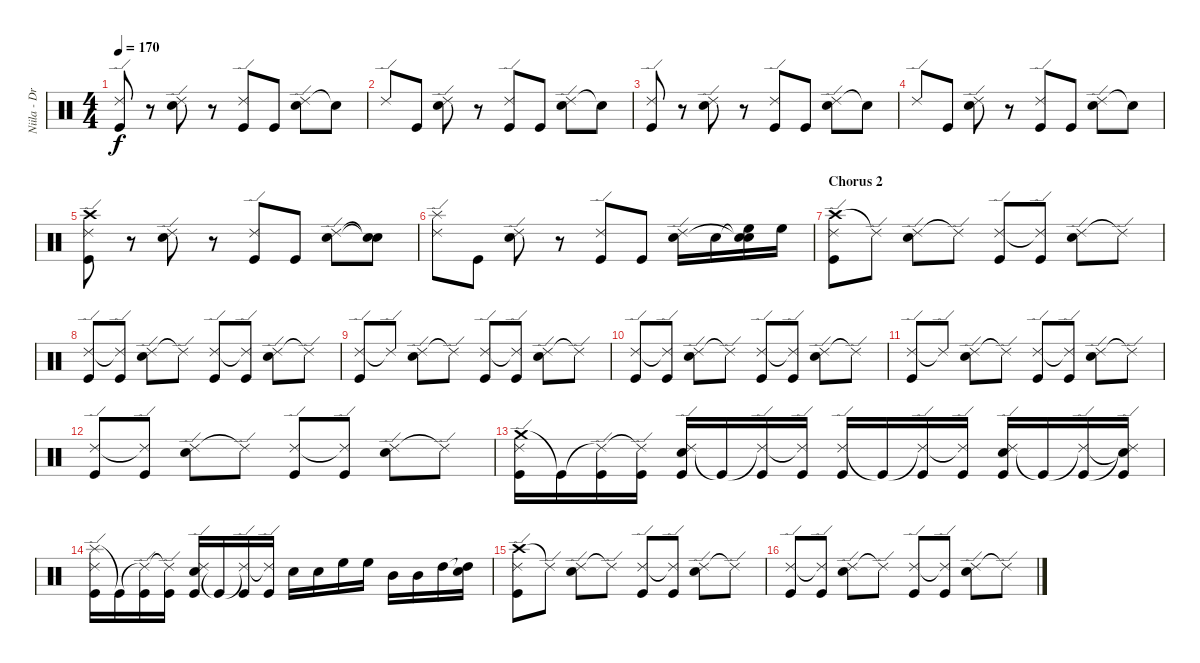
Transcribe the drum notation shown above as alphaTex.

\track ("Niila - Drums" "Niila - Dr") {instrument percussion}
\staff {score}
\articulation defaults
\ts (4 4)
\tempo 170
\clef neutral
\ks c
("Ride (edge) 2" "Kick (hit)").8{dy f} r.8 ("Ride (edge) 2" "Snare (hit) 2").8 r.8 ("Ride (edge) 2" "Kick (hit)").8 "Kick (hit)".8 ("Ride (edge) 2" "Snare (hit) 2").8 "Snare (hit)"{t}.8 |
"Ride (edge) 2".8 "Kick (hit)".8 ("Ride (edge) 2" "Snare (hit) 2").8 r.8 ("Ride (edge) 2" "Kick (hit)").8 "Kick (hit)".8 ("Ride (edge) 2" "Snare (hit) 2").8 "Snare (hit)"{t}.8 |
("Ride (edge) 2" "Kick (hit)").8 r.8 ("Ride (edge) 2" "Snare (hit) 2").8 r.8 ("Ride (edge) 2" "Kick (hit)").8 "Kick (hit)".8 ("Ride (edge) 2" "Snare (hit) 2").8 "Snare (hit)"{t}.8 |
"Ride (edge) 2".8 "Kick (hit)".8 ("Ride (edge) 2" "Snare (hit) 2").8 r.8 ("Ride (edge) 2" "Kick (hit)").8 "Kick (hit)".8 ("Ride (edge) 2" "Snare (hit) 2").8 "Snare (hit)"{t}.8 |
("Crash high (hit)" "Ride (edge) 2" "Kick (hit)").8 r.8 ("Ride (edge) 2" "Snare (hit) 2").8 r.8 ("Ride (edge) 2" "Kick (hit)").8 "Kick (hit)".8 ("Ride (edge) 2" "Snare (hit) 2").8 ("Snare (hit)"{t} "Snare (hit)"{t}).8 |
("Splash (hit)" "Ride (edge) 2").8 "Kick (hit)".8 ("Ride (edge) 2" "Snare (hit) 2").8 r.8 ("Ride (edge) 2" "Kick (hit)").8 "Kick (hit)".8 ("Ride (edge) 2" "Snare (hit) 2").16 "Snare (hit) 2".16 ("Snare (hit)"{t} "Snare (hit)"{t} "High Floor Tom (hit)").16 "High Floor Tom (hit)".16 |
\section ("" "Chorus 2")
("Crash high (hit)" "Ride (edge) 2" "Kick (hit)").8 "Ride (edge) 2"{t}.8 ("Ride (edge) 2" "Snare (hit) 2").8 "Ride (edge) 2"{t}.8 ("Ride (edge) 2" "Kick (hit)").8 ("Ride (edge) 2"{t} "Kick (hit)").8 ("Ride (edge) 2" "Snare (hit) 2").8 "Ride (edge) 2"{t}.8 |
("Ride (edge) 2" "Kick (hit)").8 ("Ride (edge) 2"{t} "Kick (hit)").8 ("Ride (edge) 2" "Snare (hit) 2").8 "Ride (edge) 2"{t}.8 ("Ride (edge) 2" "Kick (hit)").8 ("Ride (edge) 2"{t} "Kick (hit)").8 ("Ride (edge) 2" "Snare (hit) 2").8 "Ride (edge) 2"{t}.8 |
("Ride (edge) 2" "Kick (hit)").8 "Ride (edge) 2"{t}.8 ("Ride (edge) 2" "Snare (hit) 2").8 "Ride (edge) 2"{t}.8 ("Ride (edge) 2" "Kick (hit)").8 ("Ride (edge) 2"{t} "Kick (hit)").8 ("Ride (edge) 2" "Snare (hit) 2").8 "Ride (edge) 2"{t}.8 |
("Ride (edge) 2" "Kick (hit)").8 ("Ride (edge) 2"{t} "Kick (hit)").8 ("Ride (edge) 2" "Snare (hit) 2").8 "Ride (edge) 2"{t}.8 ("Ride (edge) 2" "Kick (hit)").8 ("Ride (edge) 2"{t} "Kick (hit)").8 ("Ride (edge) 2" "Snare (hit) 2").8 "Ride (edge) 2"{t}.8 |
("Ride (edge) 2" "Kick (hit)").8 "Ride (edge) 2"{t}.8 ("Ride (edge) 2" "Snare (hit) 2").8 "Ride (edge) 2"{t}.8 ("Ride (edge) 2" "Kick (hit)").8 ("Ride (edge) 2"{t} "Kick (hit)").8 ("Ride (edge) 2" "Snare (hit) 2").8 "Ride (edge) 2"{t}.8 |
("Ride (edge) 2" "Kick (hit)").8 ("Ride (edge) 2"{t} "Kick (hit)").8 ("Ride (edge) 2" "Snare (hit) 2").8 "Ride (edge) 2"{t}.8 ("Ride (edge) 2" "Kick (hit)").8 ("Ride (edge) 2"{t} "Kick (hit)").8 ("Ride (edge) 2" "Snare (hit) 2").8 "Ride (edge) 2"{t}.8 |
("Crash medium (hit)" "Ride (edge) 2" "Kick (hit)").16 "Kick (hit)"{t}.16 ("Ride (edge) 2"{t} "Kick (hit)").16 ("Ride (edge) 2"{t} "Kick (hit)").16 ("Ride (edge) 2" "Snare (hit) 2" "Kick (hit)").16 "Kick (hit)"{t}.16 ("Ride (edge) 2"{t} "Kick (hit)").16 ("Ride (edge) 2"{t} "Kick (hit)").16 ("Ride (edge) 2" "Kick (hit)").16 "Kick (hit)"{t}.16 ("Ride (edge) 2"{t} "Kick (hit)").16 ("Ride (edge) 2"{t} "Kick (hit)").16 ("Ride (edge) 2" "Snare (hit) 2" "Kick (hit)").16 "Kick (hit)"{t}.16 ("Ride (edge) 2"{t} "Kick (hit)").16 ("Snare (hit)"{t} "Ride (edge) 2"{t} "Kick (hit)").16 |
("Splash (hit)" "Ride (edge) 2" "Kick (hit)").16 "Kick (hit)"{t}.16 ("Ride (edge) 2"{t} "Kick (hit)").16 ("Ride (edge) 2"{t} "Kick (hit)").16 ("Ride (edge) 2" "Snare (hit) 2" "Kick (hit)").16 "Kick (hit)"{t}.16 ("Ride (edge) 2"{t} "Kick (hit)").16 ("Ride (edge) 2"{t} "Kick (hit)").16 "Snare (hit) 2".16 "Snare (hit) 2".16 "High Floor Tom (hit)".16 "High Floor Tom (hit)".16 "Mid Tom (hit)".16 "Mid Tom (hit)".16 "High Tom (hit)".16 ("Snare (hit)"{t} "High Tom (hit)").16 |
("Crash high (hit)" "Ride (edge) 2" "Kick (hit)").8 "Ride (edge) 2"{t}.8 ("Ride (edge) 2" "Snare (hit) 2").8 "Ride (edge) 2"{t}.8 ("Ride (edge) 2" "Kick (hit)").8 ("Ride (edge) 2"{t} "Kick (hit)").8 ("Ride (edge) 2" "Snare (hit) 2").8 "Ride (edge) 2"{t}.8 |
("Ride (edge) 2" "Kick (hit)").8 ("Ride (edge) 2"{t} "Kick (hit)").8 ("Ride (edge) 2" "Snare (hit) 2").8 "Ride (edge) 2"{t}.8 ("Ride (edge) 2" "Kick (hit)").8 ("Ride (edge) 2"{t} "Kick (hit)").8 ("Ride (edge) 2" "Snare (hit) 2").8 "Ride (edge) 2"{t}.8
